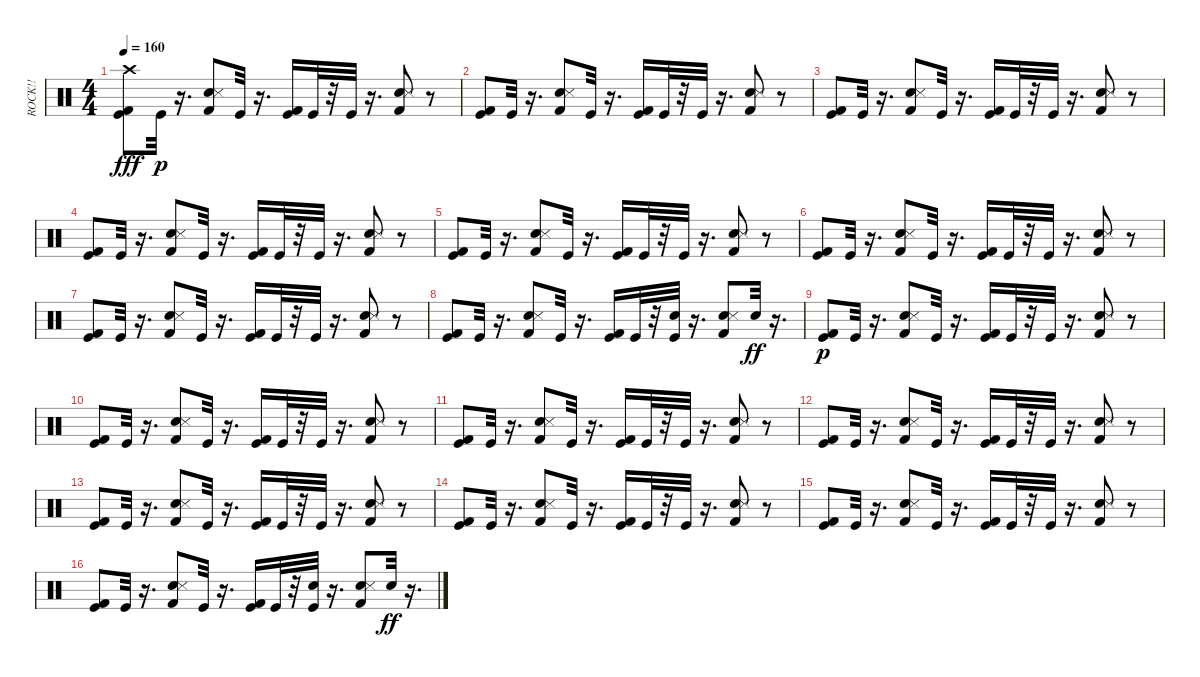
\track ("ROCK!!" "ROCK!!") {instrument percussion}
\staff {score}
\articulation defaults
\ts (4 4)
\tempo 160
\clef neutral
\ks c
("Kick (hit) 2" "Kick (hit)" "Crash high (hit)").8{dy fff} "Kick (hit)".32{dy p} r.16{d} ("Kick (hit) 2" "Electric Snare (hit)" "Snare (side stick) 3").8 "Kick (hit)".32 r.16{d} ("Kick (hit) 2" "Kick (hit)").16 "Kick (hit)".32 r.32 "Kick (hit)".32 r.16{d} ("Kick (hit) 2" "Electric Snare (hit)" "Snare (side stick) 3").8 r.8 |
("Kick (hit) 2" "Kick (hit)").8 "Kick (hit)".32 r.16{d} ("Kick (hit) 2" "Electric Snare (hit)" "Snare (side stick) 3").8 "Kick (hit)".32 r.16{d} ("Kick (hit) 2" "Kick (hit)").16 "Kick (hit)".32 r.32 "Kick (hit)".32 r.16{d} ("Kick (hit) 2" "Electric Snare (hit)" "Snare (side stick) 3").8 r.8 |
("Kick (hit) 2" "Kick (hit)").8 "Kick (hit)".32 r.16{d} ("Kick (hit) 2" "Electric Snare (hit)" "Snare (side stick) 3").8 "Kick (hit)".32 r.16{d} ("Kick (hit) 2" "Kick (hit)").16 "Kick (hit)".32 r.32 "Kick (hit)".32 r.16{d} ("Kick (hit) 2" "Electric Snare (hit)" "Snare (side stick) 3").8 r.8 |
("Kick (hit) 2" "Kick (hit)").8 "Kick (hit)".32 r.16{d} ("Kick (hit) 2" "Electric Snare (hit)" "Snare (side stick) 3").8 "Kick (hit)".32 r.16{d} ("Kick (hit) 2" "Kick (hit)").16 "Kick (hit)".32 r.32 "Kick (hit)".32 r.16{d} ("Kick (hit) 2" "Electric Snare (hit)" "Snare (side stick) 3").8 r.8 |
("Kick (hit) 2" "Kick (hit)").8 "Kick (hit)".32 r.16{d} ("Kick (hit) 2" "Electric Snare (hit)" "Snare (side stick) 3").8 "Kick (hit)".32 r.16{d} ("Kick (hit) 2" "Kick (hit)").16 "Kick (hit)".32 r.32 "Kick (hit)".32 r.16{d} ("Kick (hit) 2" "Electric Snare (hit)" "Snare (side stick) 3").8 r.8 |
("Kick (hit) 2" "Kick (hit)").8 "Kick (hit)".32 r.16{d} ("Kick (hit) 2" "Electric Snare (hit)" "Snare (side stick) 3").8 "Kick (hit)".32 r.16{d} ("Kick (hit) 2" "Kick (hit)").16 "Kick (hit)".32 r.32 "Kick (hit)".32 r.16{d} ("Kick (hit) 2" "Electric Snare (hit)" "Snare (side stick) 3").8 r.8 |
("Kick (hit) 2" "Kick (hit)").8 "Kick (hit)".32 r.16{d} ("Kick (hit) 2" "Electric Snare (hit)" "Snare (side stick) 3").8 "Kick (hit)".32 r.16{d} ("Kick (hit) 2" "Kick (hit)").16 "Kick (hit)".32 r.32 "Kick (hit)".32 r.16{d} ("Kick (hit) 2" "Electric Snare (hit)" "Snare (side stick) 3").8 r.8 |
("Kick (hit) 2" "Kick (hit)").8 "Kick (hit)".32 r.16{d} ("Kick (hit) 2" "Electric Snare (hit)" "Snare (side stick) 3").8 "Kick (hit)".32 r.16{d} ("Kick (hit) 2" "Kick (hit)").16 "Kick (hit)".32 r.32 ("Electric Snare (hit)" "Kick (hit)").32 r.16{d} ("Kick (hit) 2" "Electric Snare (hit)" "Snare (side stick) 3").8 "Electric Snare (hit)".32{dy ff} r.16{d} |
("Kick (hit) 2" "Kick (hit)").8{dy p} "Kick (hit)".32 r.16{d} ("Kick (hit) 2" "Electric Snare (hit)" "Snare (side stick) 3").8 "Kick (hit)".32 r.16{d} ("Kick (hit) 2" "Kick (hit)").16 "Kick (hit)".32 r.32 "Kick (hit)".32 r.16{d} ("Kick (hit) 2" "Electric Snare (hit)" "Snare (side stick) 3").8 r.8 |
("Kick (hit) 2" "Kick (hit)").8 "Kick (hit)".32 r.16{d} ("Kick (hit) 2" "Electric Snare (hit)" "Snare (side stick) 3").8 "Kick (hit)".32 r.16{d} ("Kick (hit) 2" "Kick (hit)").16 "Kick (hit)".32 r.32 "Kick (hit)".32 r.16{d} ("Kick (hit) 2" "Electric Snare (hit)" "Snare (side stick) 3").8 r.8 |
("Kick (hit) 2" "Kick (hit)").8 "Kick (hit)".32 r.16{d} ("Kick (hit) 2" "Electric Snare (hit)" "Snare (side stick) 3").8 "Kick (hit)".32 r.16{d} ("Kick (hit) 2" "Kick (hit)").16 "Kick (hit)".32 r.32 "Kick (hit)".32 r.16{d} ("Kick (hit) 2" "Electric Snare (hit)" "Snare (side stick) 3").8 r.8 |
("Kick (hit) 2" "Kick (hit)").8 "Kick (hit)".32 r.16{d} ("Kick (hit) 2" "Electric Snare (hit)" "Snare (side stick) 3").8 "Kick (hit)".32 r.16{d} ("Kick (hit) 2" "Kick (hit)").16 "Kick (hit)".32 r.32 "Kick (hit)".32 r.16{d} ("Kick (hit) 2" "Electric Snare (hit)" "Snare (side stick) 3").8 r.8 |
("Kick (hit) 2" "Kick (hit)").8 "Kick (hit)".32 r.16{d} ("Kick (hit) 2" "Electric Snare (hit)" "Snare (side stick) 3").8 "Kick (hit)".32 r.16{d} ("Kick (hit) 2" "Kick (hit)").16 "Kick (hit)".32 r.32 "Kick (hit)".32 r.16{d} ("Kick (hit) 2" "Electric Snare (hit)" "Snare (side stick) 3").8 r.8 |
("Kick (hit) 2" "Kick (hit)").8 "Kick (hit)".32 r.16{d} ("Kick (hit) 2" "Electric Snare (hit)" "Snare (side stick) 3").8 "Kick (hit)".32 r.16{d} ("Kick (hit) 2" "Kick (hit)").16 "Kick (hit)".32 r.32 "Kick (hit)".32 r.16{d} ("Kick (hit) 2" "Electric Snare (hit)" "Snare (side stick) 3").8 r.8 |
("Kick (hit) 2" "Kick (hit)").8 "Kick (hit)".32 r.16{d} ("Kick (hit) 2" "Electric Snare (hit)" "Snare (side stick) 3").8 "Kick (hit)".32 r.16{d} ("Kick (hit) 2" "Kick (hit)").16 "Kick (hit)".32 r.32 "Kick (hit)".32 r.16{d} ("Kick (hit) 2" "Electric Snare (hit)" "Snare (side stick) 3").8 r.8 |
("Kick (hit) 2" "Kick (hit)").8 "Kick (hit)".32 r.16{d} ("Kick (hit) 2" "Electric Snare (hit)" "Snare (side stick) 3").8 "Kick (hit)".32 r.16{d} ("Kick (hit) 2" "Kick (hit)").16 "Kick (hit)".32 r.32 ("Electric Snare (hit)" "Kick (hit)").32 r.16{d} ("Kick (hit) 2" "Electric Snare (hit)" "Snare (side stick) 3").8 "Electric Snare (hit)".32{dy ff} r.16{d}
